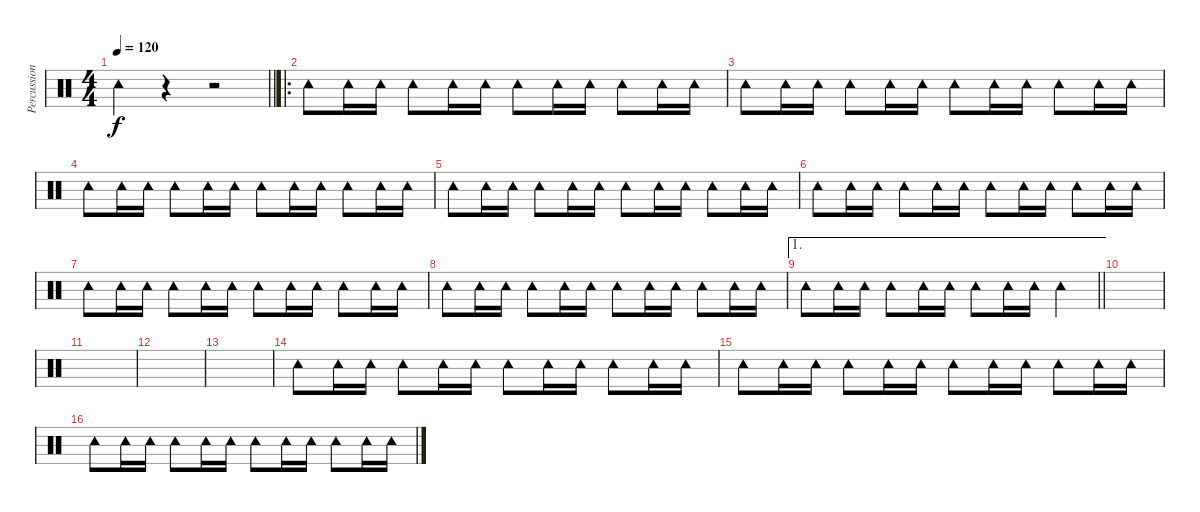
\track ("Percussion" "Percussion") {instrument percussion}
\staff {score}
\articulation defaults
\ts (4 4)
\tempo 120
\clef neutral
\barLineRight lightlight
\ks c "Tambourine (hit)".4{dy f}
r.4 r.2 |
\ro "Tambourine (hit)".8 "Tambourine (hit)".16 "Tambourine (hit)".16 "Tambourine (hit)".8 "Tambourine (hit)".16 "Tambourine (hit)".16 "Tambourine (hit)".8 "Tambourine (hit)".16 "Tambourine (hit)".16 "Tambourine (hit)".8 "Tambourine (hit)".16 "Tambourine (hit)".16
|
"Tambourine (hit)".8 "Tambourine (hit)".16 "Tambourine (hit)".16 "Tambourine (hit)".8 "Tambourine (hit)".16 "Tambourine (hit)".16 "Tambourine (hit)".8 "Tambourine (hit)".16 "Tambourine (hit)".16 "Tambourine (hit)".8 "Tambourine (hit)".16 "Tambourine (hit)".16 |
"Tambourine (hit)".8 "Tambourine (hit)".16 "Tambourine (hit)".16 "Tambourine (hit)".8 "Tambourine (hit)".16 "Tambourine (hit)".16 "Tambourine (hit)".8 "Tambourine (hit)".16 "Tambourine (hit)".16 "Tambourine (hit)".8 "Tambourine (hit)".16 "Tambourine (hit)".16 |
"Tambourine (hit)".8 "Tambourine (hit)".16 "Tambourine (hit)".16 "Tambourine (hit)".8 "Tambourine (hit)".16 "Tambourine (hit)".16 "Tambourine (hit)".8 "Tambourine (hit)".16 "Tambourine (hit)".16 "Tambourine (hit)".8 "Tambourine (hit)".16 "Tambourine (hit)".16 |
"Tambourine (hit)".8 "Tambourine (hit)".16 "Tambourine (hit)".16 "Tambourine (hit)".8 "Tambourine (hit)".16 "Tambourine (hit)".16 "Tambourine (hit)".8 "Tambourine (hit)".16 "Tambourine (hit)".16 "Tambourine (hit)".8 "Tambourine (hit)".16 "Tambourine (hit)".16 |
"Tambourine (hit)".8 "Tambourine (hit)".16 "Tambourine (hit)".16 "Tambourine (hit)".8 "Tambourine (hit)".16 "Tambourine (hit)".16 "Tambourine (hit)".8 "Tambourine (hit)".16 "Tambourine (hit)".16 "Tambourine (hit)".8 "Tambourine (hit)".16 "Tambourine (hit)".16 |
"Tambourine (hit)".8 "Tambourine (hit)".16 "Tambourine (hit)".16 "Tambourine (hit)".8 "Tambourine (hit)".16 "Tambourine (hit)".16 "Tambourine (hit)".8 "Tambourine (hit)".16 "Tambourine (hit)".16 "Tambourine (hit)".8 "Tambourine (hit)".16 "Tambourine (hit)".16 |
\ae 1
\barLineRight lightlight "Tambourine (hit)".8 "Tambourine (hit)".16 "Tambourine (hit)".16 "Tambourine (hit)".8 "Tambourine (hit)".16 "Tambourine (hit)".16 "Tambourine (hit)".8 "Tambourine (hit)".16 "Tambourine (hit)".16 "Tambourine (hit)".4
|
|
|
|
|
"Tambourine (hit)".8 "Tambourine (hit)".16 "Tambourine (hit)".16 "Tambourine (hit)".8 "Tambourine (hit)".16 "Tambourine (hit)".16 "Tambourine (hit)".8 "Tambourine (hit)".16 "Tambourine (hit)".16 "Tambourine (hit)".8 "Tambourine (hit)".16 "Tambourine (hit)".16 |
"Tambourine (hit)".8 "Tambourine (hit)".16 "Tambourine (hit)".16 "Tambourine (hit)".8 "Tambourine (hit)".16 "Tambourine (hit)".16 "Tambourine (hit)".8 "Tambourine (hit)".16 "Tambourine (hit)".16 "Tambourine (hit)".8 "Tambourine (hit)".16 "Tambourine (hit)".16 |
"Tambourine (hit)".8 "Tambourine (hit)".16 "Tambourine (hit)".16 "Tambourine (hit)".8 "Tambourine (hit)".16 "Tambourine (hit)".16 "Tambourine (hit)".8 "Tambourine (hit)".16 "Tambourine (hit)".16 "Tambourine (hit)".8 "Tambourine (hit)".16 "Tambourine (hit)".16
